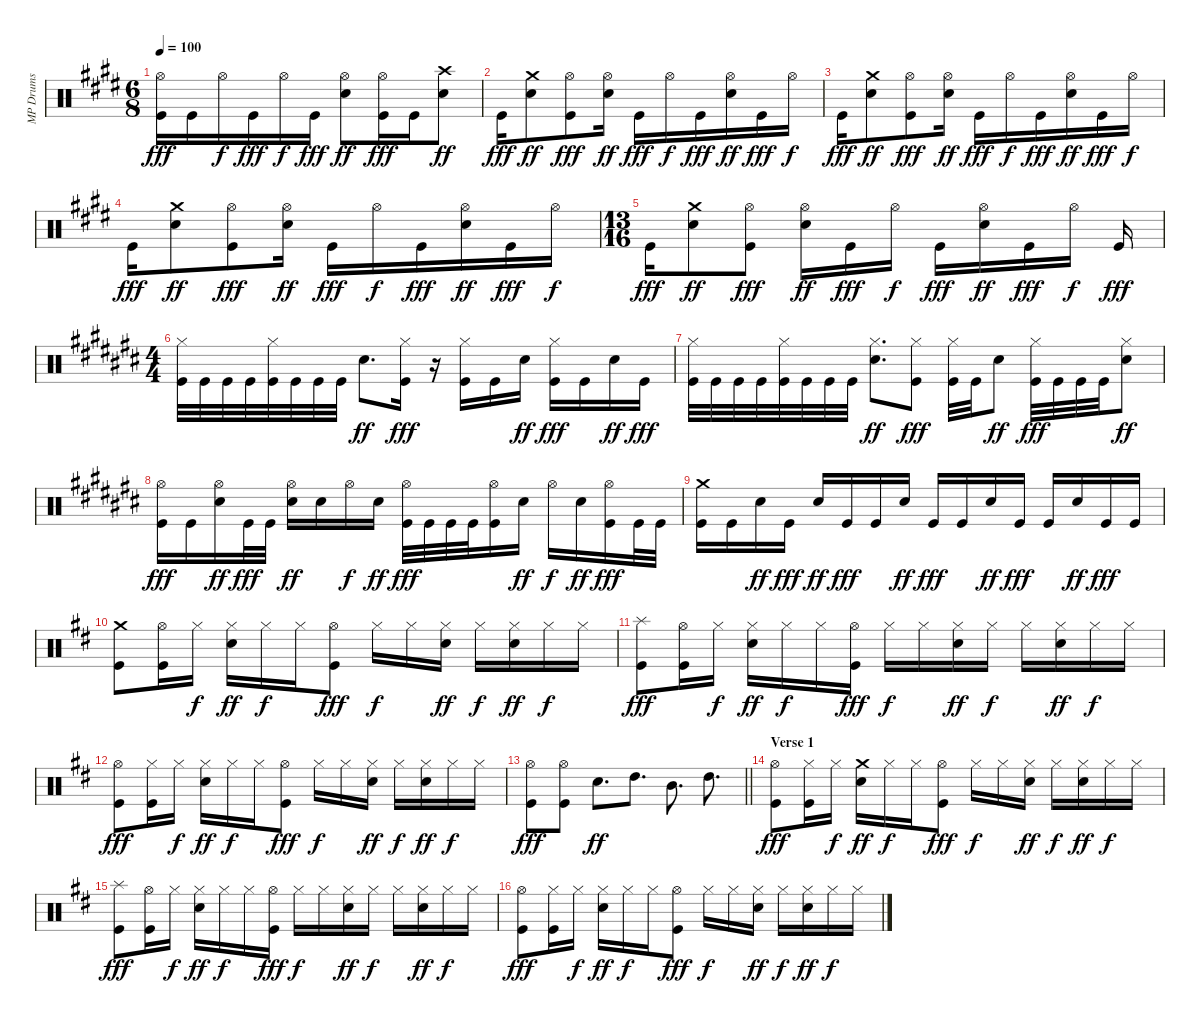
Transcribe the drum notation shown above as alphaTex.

\track ("MP Drums" "MP Drums") {instrument percussion}
\staff {score}
\articulation defaults
\ts (6 8)
\tempo 100
\clef neutral
\ks e
("Hi-Hat (open)" "Kick (hit)").16{dy fff} "Kick (hit)".16 "Hi-Hat (open)".16{dy f} "Kick (hit)".16{dy fff} "Hi-Hat (open)".16{dy f} "Kick (hit)".16{dy fff} ("Hi-Hat (open)" "Snare (hit) 2").8{dy ff} ("Hi-Hat (open)" "Kick (hit)").16{dy fff} "Kick (hit)".16 ("Crash high (hit)" "Snare (hit) 2").8{dy ff} |
"Kick (hit)".16{dy fff} ("Crash medium (hit)" "Snare (hit) 2").8{dy ff} ("Hi-Hat (open)" "Kick (hit)").8{dy fff} ("Hi-Hat (open)" "Snare (hit) 2").16{dy ff} "Kick (hit)".16{dy fff} "Hi-Hat (open)".16{dy f} "Kick (hit)".16{dy fff} ("Hi-Hat (open)" "Snare (hit) 2").16{dy ff} "Kick (hit)".16{dy fff} "Hi-Hat (open)".16{dy f} |
"Kick (hit)".16{dy fff} ("Crash medium (hit)" "Snare (hit) 2").8{dy ff} ("Hi-Hat (open)" "Kick (hit)").8{dy fff} ("Hi-Hat (open)" "Snare (hit) 2").16{dy ff} "Kick (hit)".16{dy fff} "Hi-Hat (open)".16{dy f} "Kick (hit)".16{dy fff} ("Hi-Hat (open)" "Snare (hit) 2").16{dy ff} "Kick (hit)".16{dy fff} "Hi-Hat (open)".16{dy f} |
"Kick (hit)".16{dy fff} ("Crash medium (hit)" "Snare (hit) 2").8{dy ff} ("Hi-Hat (open)" "Kick (hit)").8{dy fff} ("Hi-Hat (open)" "Snare (hit) 2").16{dy ff} "Kick (hit)".16{dy fff} "Hi-Hat (open)".16{dy f} "Kick (hit)".16{dy fff} ("Hi-Hat (open)" "Snare (hit) 2").16{dy ff} "Kick (hit)".16{dy fff} "Hi-Hat (open)".16{dy f} |
\ts (13 16)
"Kick (hit)".16{dy fff} ("Crash medium (hit)" "Snare (hit) 2").8{dy ff} ("Hi-Hat (open)" "Kick (hit)").8{dy fff} ("Hi-Hat (open)" "Snare (hit) 2").16{dy ff} "Kick (hit)".16{dy fff} "Hi-Hat (open)".16{dy f} "Kick (hit)".16{dy fff} ("Hi-Hat (open)" "Snare (hit) 2").16{dy ff} "Kick (hit)".16{dy fff} "Hi-Hat (open)".16{dy f} "Kick (hit)".16{dy fff} |
\ts (4 4)
\ks c#
("Hi-Hat (closed)" "Kick (hit)").32 "Kick (hit)".32 "Kick (hit)".32 "Kick (hit)".32 ("Hi-Hat (closed)" "Kick (hit)").32 "Kick (hit)".32 "Kick (hit)".32 "Kick (hit)".32 "Snare (hit) 2".8{d dy ff} ("Hi-Hat (closed)" "Kick (hit)").16{dy fff} r.16 ("Hi-Hat (closed)" "Kick (hit)").16 "Kick (hit)".16 "Snare (hit) 2".16{dy ff} ("Hi-Hat (closed)" "Kick (hit)").16{dy fff} "Kick (hit)".16 "Snare (hit) 2".16{dy ff} "Kick (hit)".16{dy fff} |
("Hi-Hat (closed)" "Kick (hit)").32 "Kick (hit)".32 "Kick (hit)".32 "Kick (hit)".32 ("Hi-Hat (closed)" "Kick (hit)").32 "Kick (hit)".32 "Kick (hit)".32 "Kick (hit)".32 ("Hi-Hat (closed)" "Snare (hit) 2").8{d dy ff} ("Hi-Hat (closed)" "Kick (hit)").8{dy fff} ("Hi-Hat (closed)" "Kick (hit)").32 "Kick (hit)".32 "Snare (hit) 2".8{dy ff} ("Hi-Hat (closed)" "Kick (hit)").32{dy fff} "Kick (hit)".32 "Kick (hit)".32 "Kick (hit)".32 ("Hi-Hat (closed)" "Snare (hit) 2").8{dy ff} |
("Hi-Hat (open)" "Kick (hit)").16{dy fff} "Kick (hit)".16 ("Hi-Hat (open)" "Snare (hit) 2").16{dy ff} "Kick (hit)".32{dy fff} "Kick (hit)".32 ("Hi-Hat (open)" "Snare (hit) 2").16{dy ff} "Snare (hit) 2".16 "Hi-Hat (open)".16{dy f} "Snare (hit) 2".16{dy ff} ("Hi-Hat (open)" "Kick (hit)").32{dy fff} "Kick (hit)".32 "Kick (hit)".32 "Kick (hit)".32 ("Hi-Hat (open)" "Kick (hit)").16 "Snare (hit) 2".16{dy ff} "Hi-Hat (open)".16{dy f} "Snare (hit) 2".16{dy ff} ("Hi-Hat (open)" "Kick (hit)").16{dy fff} "Kick (hit)".32 "Kick (hit)".32 |
("Crash medium (hit)" "Kick (hit)").16 "Kick (hit)".16 "Snare (hit) 2".16{dy ff} "Kick (hit)".16{dy fff} "Snare (hit) 2".16{dy ff} "Kick (hit)".16{dy fff} "Kick (hit)".16 "Snare (hit) 2".16{dy ff} "Kick (hit)".16{dy fff} "Kick (hit)".16 "Snare (hit) 2".16{dy ff} "Kick (hit)".16{dy fff} "Kick (hit)".16 "Snare (hit) 2".16{dy ff} "Kick (hit)".16{dy fff} "Kick (hit)".16 |
\ks d
("Crash medium (hit)" "Kick (hit)").8 ("Hi-Hat (open)" "Kick (hit)").16 "Hi-Hat (closed)".16{dy f} ("Hi-Hat (closed)" "Snare (hit) 2").16{dy ff} "Hi-Hat (closed)".16{dy f} "Hi-Hat (closed)".16 ("Hi-Hat (open)" "Kick (hit)").8{dy fff} "Hi-Hat (closed)".16{dy f} "Hi-Hat (closed)".16 ("Hi-Hat (closed)" "Snare (hit) 2").16{dy ff} "Hi-Hat (closed)".16{dy f} ("Hi-Hat (closed)" "Snare (hit) 2").16{dy ff} "Hi-Hat (closed)".16{dy f} "Hi-Hat (closed)".16 |
("Splash (hit)" "Kick (hit)").8{dy fff} ("Hi-Hat (open)" "Kick (hit)").16 "Hi-Hat (closed)".16{dy f} ("Hi-Hat (closed)" "Snare (hit) 2").16{dy ff} "Hi-Hat (closed)".16{dy f} "Hi-Hat (closed)".16 ("Hi-Hat (open)" "Kick (hit)").16{dy fff} "Hi-Hat (closed)".16{dy f} "Hi-Hat (closed)".16 ("Hi-Hat (closed)" "Snare (hit) 2").16{dy ff} "Hi-Hat (closed)".16{dy f} "Hi-Hat (closed)".16 ("Hi-Hat (closed)" "Snare (hit) 2").16{dy ff} "Hi-Hat (closed)".16{dy f} "Hi-Hat (closed)".16 |
("Hi-Hat (open)" "Kick (hit)").8{dy fff} ("Hi-Hat (closed)" "Kick (hit)").16 "Hi-Hat (closed)".16{dy f} ("Hi-Hat (closed)" "Snare (hit) 2").16{dy ff} "Hi-Hat (closed)".16{dy f} "Hi-Hat (closed)".16 ("Hi-Hat (open)" "Kick (hit)").8{dy fff} "Hi-Hat (closed)".16{dy f} "Hi-Hat (closed)".16 ("Hi-Hat (closed)" "Snare (hit) 2").16{dy ff} "Hi-Hat (closed)".16{dy f} ("Hi-Hat (closed)" "Snare (hit) 2").16{dy ff} "Hi-Hat (closed)".16{dy f} "Hi-Hat (closed)".16 |
\barLineRight lightlight
("Hi-Hat (open)" "Kick (hit)").8{dy fff} ("Hi-Hat (open)" "Kick (hit)").8 "Snare (hit) 2".8{d dy ff} "High Tom (hit)".8{d} "Mid Tom (hit)".8{d} "High Tom (hit)".8{d} |
\section ("" "Verse 1")
("Hi-Hat (open)" "Kick (hit)").8{dy fff} ("Hi-Hat (closed)" "Kick (hit)").16 "Hi-Hat (closed)".16{dy f} ("Crash medium (hit)" "Snare (hit) 2").16{dy ff} "Hi-Hat (closed)".16{dy f} "Hi-Hat (closed)".16 ("Hi-Hat (open)" "Kick (hit)").8{dy fff} "Hi-Hat (closed)".16{dy f} "Hi-Hat (closed)".16 ("Hi-Hat (closed)" "Snare (hit) 2").16{dy ff} "Hi-Hat (closed)".16{dy f} ("Hi-Hat (closed)" "Snare (hit) 2").16{dy ff} "Hi-Hat (closed)".16{dy f} "Hi-Hat (closed)".16 |
("Splash (hit)" "Kick (hit)").8{dy fff} ("Hi-Hat (open)" "Kick (hit)").16 "Hi-Hat (closed)".16{dy f} ("Hi-Hat (closed)" "Snare (hit) 2").16{dy ff} "Hi-Hat (closed)".16{dy f} "Hi-Hat (closed)".16 ("Hi-Hat (open)" "Kick (hit)").16{dy fff} "Hi-Hat (closed)".16{dy f} "Hi-Hat (closed)".16 ("Hi-Hat (closed)" "Snare (hit) 2").16{dy ff} "Hi-Hat (closed)".16{dy f} "Hi-Hat (closed)".16 ("Hi-Hat (closed)" "Snare (hit) 2").16{dy ff} "Hi-Hat (closed)".16{dy f} "Hi-Hat (closed)".16 |
("Hi-Hat (open)" "Kick (hit)").8{dy fff} ("Hi-Hat (closed)" "Kick (hit)").16 "Hi-Hat (closed)".16{dy f} ("Hi-Hat (closed)" "Snare (hit) 2").16{dy ff} "Hi-Hat (closed)".16{dy f} "Hi-Hat (closed)".16 ("Hi-Hat (open)" "Kick (hit)").8{dy fff} "Hi-Hat (closed)".16{dy f} "Hi-Hat (closed)".16 ("Hi-Hat (closed)" "Snare (hit) 2").16{dy ff} "Hi-Hat (closed)".16{dy f} ("Hi-Hat (closed)" "Snare (hit) 2").16{dy ff} "Hi-Hat (closed)".16{dy f} "Hi-Hat (closed)".16
